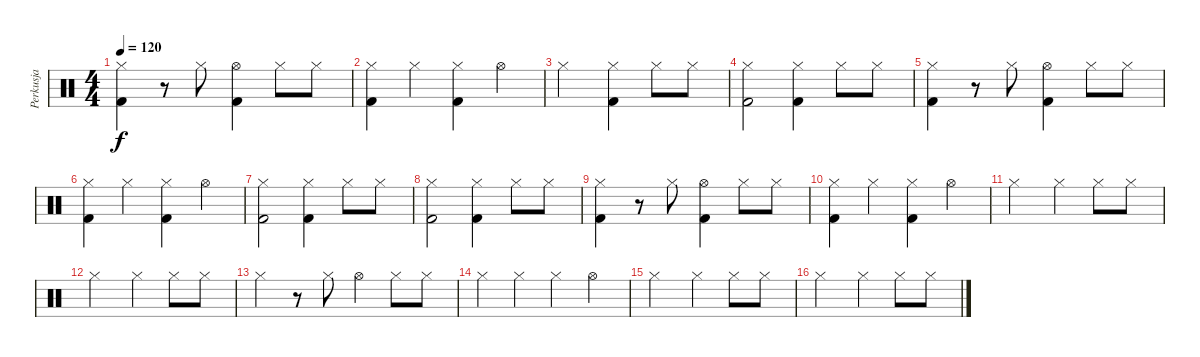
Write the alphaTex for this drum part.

\track ("Perkusja" "Perkusja") {instrument percussion}
\staff {score}
\articulation defaults
\ts (4 4)
\tempo 120
\clef neutral
\ks c
("Hi-Hat (closed)" "Kick (hit) 2").4{dy f} r.8 "Hi-Hat (closed)".8 ("Hi-Hat (open)" "Kick (hit) 2").4 "Hi-Hat (closed)".8 "Hi-Hat (closed)".8 |
("Hi-Hat (closed)" "Kick (hit) 2").4 "Hi-Hat (closed)".4 ("Hi-Hat (closed)" "Kick (hit) 2").4 "Hi-Hat (open)".4 |
"Hi-Hat (closed)".2 ("Hi-Hat (closed)" "Kick (hit) 2").4 "Hi-Hat (closed)".8 "Hi-Hat (closed)".8 |
("Hi-Hat (closed)" "Kick (hit) 2").2 ("Hi-Hat (closed)" "Kick (hit) 2").4 "Hi-Hat (closed)".8 "Hi-Hat (closed)".8 |
("Hi-Hat (closed)" "Kick (hit) 2").4 r.8 "Hi-Hat (closed)".8 ("Hi-Hat (open)" "Kick (hit) 2").4 "Hi-Hat (closed)".8 "Hi-Hat (closed)".8 |
("Hi-Hat (closed)" "Kick (hit) 2").4 "Hi-Hat (closed)".4 ("Hi-Hat (closed)" "Kick (hit) 2").4 "Hi-Hat (open)".4 |
("Hi-Hat (closed)" "Kick (hit) 2").2 ("Hi-Hat (closed)" "Kick (hit) 2").4 "Hi-Hat (closed)".8 "Hi-Hat (closed)".8 |
("Hi-Hat (closed)" "Kick (hit) 2").2 ("Hi-Hat (closed)" "Kick (hit) 2").4 "Hi-Hat (closed)".8 "Hi-Hat (closed)".8 |
("Hi-Hat (closed)" "Kick (hit) 2").4 r.8 "Hi-Hat (closed)".8 ("Hi-Hat (open)" "Kick (hit) 2").4 "Hi-Hat (closed)".8 "Hi-Hat (closed)".8 |
("Hi-Hat (closed)" "Kick (hit) 2").4 "Hi-Hat (closed)".4 ("Hi-Hat (closed)" "Kick (hit) 2").4 "Hi-Hat (open)".4 |
"Hi-Hat (closed)".2 "Hi-Hat (closed)".4 "Hi-Hat (closed)".8 "Hi-Hat (closed)".8 |
"Hi-Hat (closed)".2 "Hi-Hat (closed)".4 "Hi-Hat (closed)".8 "Hi-Hat (closed)".8 |
"Hi-Hat (closed)".4 r.8 "Hi-Hat (closed)".8 "Hi-Hat (open)".4 "Hi-Hat (closed)".8 "Hi-Hat (closed)".8 |
"Hi-Hat (closed)".4 "Hi-Hat (closed)".4 "Hi-Hat (closed)".4 "Hi-Hat (open)".4 |
"Hi-Hat (closed)".2 "Hi-Hat (closed)".4 "Hi-Hat (closed)".8 "Hi-Hat (closed)".8 |
"Hi-Hat (closed)".2 "Hi-Hat (closed)".4 "Hi-Hat (closed)".8 "Hi-Hat (closed)".8
